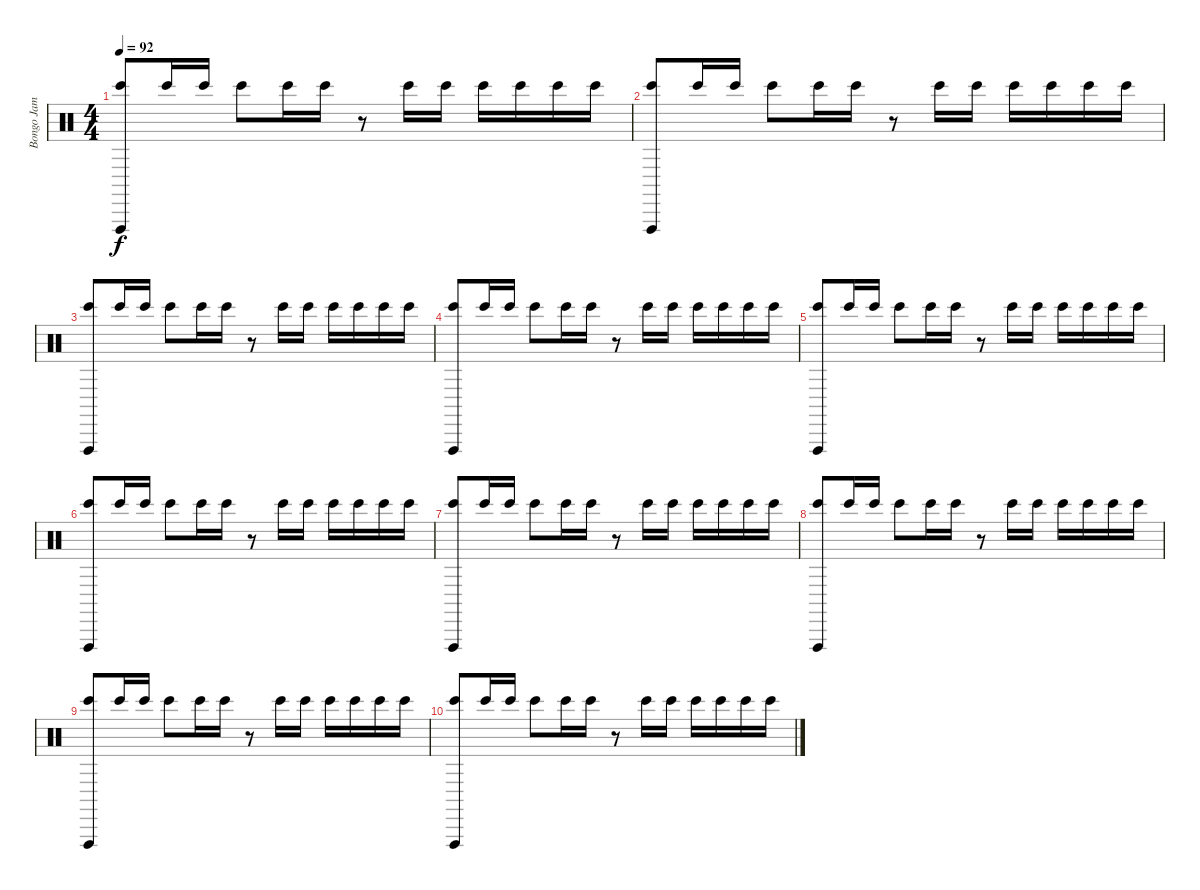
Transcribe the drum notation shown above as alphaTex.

\track ("Bongo Jam and Vibraslap" "Bongo Jam ") {instrument percussion}
\staff {score}
\articulation defaults
\ts (4 4)
\tempo 92
\clef neutral
\ks c
("Bongo High (hit)" "Vibraslap (hit)").8{dy f} "Bongo High (hit)".16 "Bongo High (hit)".16 "Bongo High (hit)".8 "Bongo High (hit)".16 "Bongo High (hit)".16 r.8 "Bongo High (hit)".16 "Bongo High (hit)".16 "Bongo High (hit)".16 "Bongo High (hit)".16 "Bongo High (hit)".16 "Bongo High (hit)".16 |
("Bongo High (hit)" "Vibraslap (hit)").8 "Bongo High (hit)".16 "Bongo High (hit)".16 "Bongo High (hit)".8 "Bongo High (hit)".16 "Bongo High (hit)".16 r.8 "Bongo High (hit)".16 "Bongo High (hit)".16 "Bongo High (hit)".16 "Bongo High (hit)".16 "Bongo High (hit)".16 "Bongo High (hit)".16 |
("Bongo High (hit)" "Vibraslap (hit)").8 "Bongo High (hit)".16 "Bongo High (hit)".16 "Bongo High (hit)".8 "Bongo High (hit)".16 "Bongo High (hit)".16 r.8 "Bongo High (hit)".16 "Bongo High (hit)".16 "Bongo High (hit)".16 "Bongo High (hit)".16 "Bongo High (hit)".16 "Bongo High (hit)".16 |
("Bongo High (hit)" "Vibraslap (hit)").8 "Bongo High (hit)".16 "Bongo High (hit)".16 "Bongo High (hit)".8 "Bongo High (hit)".16 "Bongo High (hit)".16 r.8 "Bongo High (hit)".16 "Bongo High (hit)".16 "Bongo High (hit)".16 "Bongo High (hit)".16 "Bongo High (hit)".16 "Bongo High (hit)".16 |
("Bongo High (hit)" "Vibraslap (hit)").8 "Bongo High (hit)".16 "Bongo High (hit)".16 "Bongo High (hit)".8 "Bongo High (hit)".16 "Bongo High (hit)".16 r.8 "Bongo High (hit)".16 "Bongo High (hit)".16 "Bongo High (hit)".16 "Bongo High (hit)".16 "Bongo High (hit)".16 "Bongo High (hit)".16 |
("Bongo High (hit)" "Vibraslap (hit)").8 "Bongo High (hit)".16 "Bongo High (hit)".16 "Bongo High (hit)".8 "Bongo High (hit)".16 "Bongo High (hit)".16 r.8 "Bongo High (hit)".16 "Bongo High (hit)".16 "Bongo High (hit)".16 "Bongo High (hit)".16 "Bongo High (hit)".16 "Bongo High (hit)".16 |
("Bongo High (hit)" "Vibraslap (hit)").8 "Bongo High (hit)".16 "Bongo High (hit)".16 "Bongo High (hit)".8 "Bongo High (hit)".16 "Bongo High (hit)".16 r.8 "Bongo High (hit)".16 "Bongo High (hit)".16 "Bongo High (hit)".16 "Bongo High (hit)".16 "Bongo High (hit)".16 "Bongo High (hit)".16 |
("Bongo High (hit)" "Vibraslap (hit)").8 "Bongo High (hit)".16 "Bongo High (hit)".16 "Bongo High (hit)".8 "Bongo High (hit)".16 "Bongo High (hit)".16 r.8 "Bongo High (hit)".16 "Bongo High (hit)".16 "Bongo High (hit)".16 "Bongo High (hit)".16 "Bongo High (hit)".16 "Bongo High (hit)".16 |
("Bongo High (hit)" "Vibraslap (hit)").8 "Bongo High (hit)".16 "Bongo High (hit)".16 "Bongo High (hit)".8 "Bongo High (hit)".16 "Bongo High (hit)".16 r.8 "Bongo High (hit)".16 "Bongo High (hit)".16 "Bongo High (hit)".16 "Bongo High (hit)".16 "Bongo High (hit)".16 "Bongo High (hit)".16 |
("Bongo High (hit)" "Vibraslap (hit)").8 "Bongo High (hit)".16 "Bongo High (hit)".16 "Bongo High (hit)".8 "Bongo High (hit)".16 "Bongo High (hit)".16 r.8 "Bongo High (hit)".16 "Bongo High (hit)".16 "Bongo High (hit)".16 "Bongo High (hit)".16 "Bongo High (hit)".16 "Bongo High (hit)".16
